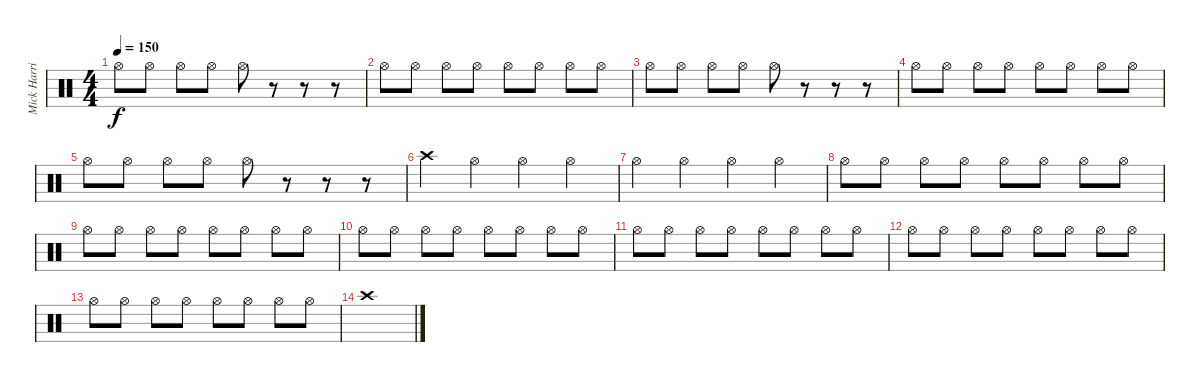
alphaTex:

\track ("Mick Harris" "Mick Harri") {instrument percussion}
\staff {score}
\articulation defaults
\ts (4 4)
\tempo 150
\clef neutral
\ks c "Hi-Hat (open)".8{dy f} "Hi-Hat (open)".8 "Hi-Hat (open)".8 "Hi-Hat (open)".8 "Hi-Hat (open)".8
r.8 r.8 r.8 |
"Hi-Hat (open)".8 "Hi-Hat (open)".8 "Hi-Hat (open)".8 "Hi-Hat (open)".8 "Hi-Hat (open)".8 "Hi-Hat (open)".8 "Hi-Hat (open)".8 "Hi-Hat (open)".8 |
"Hi-Hat (open)".8 "Hi-Hat (open)".8 "Hi-Hat (open)".8 "Hi-Hat (open)".8 "Hi-Hat (open)".8 r.8 r.8 r.8 |
"Hi-Hat (open)".8 "Hi-Hat (open)".8 "Hi-Hat (open)".8 "Hi-Hat (open)".8 "Hi-Hat (open)".8 "Hi-Hat (open)".8 "Hi-Hat (open)".8 "Hi-Hat (open)".8 |
"Hi-Hat (open)".8 "Hi-Hat (open)".8 "Hi-Hat (open)".8 "Hi-Hat (open)".8 "Hi-Hat (open)".8 r.8 r.8 r.8 |
"Crash high (hit)".4 "Hi-Hat (open)".4 "Hi-Hat (open)".4 "Hi-Hat (open)".4 |
"Hi-Hat (open)".4 "Hi-Hat (open)".4 "Hi-Hat (open)".4 "Hi-Hat (open)".4 |
"Hi-Hat (open)".8 "Hi-Hat (open)".8 "Hi-Hat (open)".8 "Hi-Hat (open)".8 "Hi-Hat (open)".8 "Hi-Hat (open)".8 "Hi-Hat (open)".8 "Hi-Hat (open)".8 |
"Hi-Hat (open)".8 "Hi-Hat (open)".8 "Hi-Hat (open)".8 "Hi-Hat (open)".8 "Hi-Hat (open)".8 "Hi-Hat (open)".8 "Hi-Hat (open)".8 "Hi-Hat (open)".8 |
"Hi-Hat (open)".8 "Hi-Hat (open)".8 "Hi-Hat (open)".8 "Hi-Hat (open)".8 "Hi-Hat (open)".8 "Hi-Hat (open)".8 "Hi-Hat (open)".8 "Hi-Hat (open)".8 |
"Hi-Hat (open)".8 "Hi-Hat (open)".8 "Hi-Hat (open)".8 "Hi-Hat (open)".8 "Hi-Hat (open)".8 "Hi-Hat (open)".8 "Hi-Hat (open)".8 "Hi-Hat (open)".8 |
"Hi-Hat (open)".8 "Hi-Hat (open)".8 "Hi-Hat (open)".8 "Hi-Hat (open)".8 "Hi-Hat (open)".8 "Hi-Hat (open)".8 "Hi-Hat (open)".8 "Hi-Hat (open)".8 |
"Hi-Hat (open)".8 "Hi-Hat (open)".8 "Hi-Hat (open)".8 "Hi-Hat (open)".8 "Hi-Hat (open)".8 "Hi-Hat (open)".8 "Hi-Hat (open)".8 "Hi-Hat (open)".8 |
"Crash high (hit)".1
